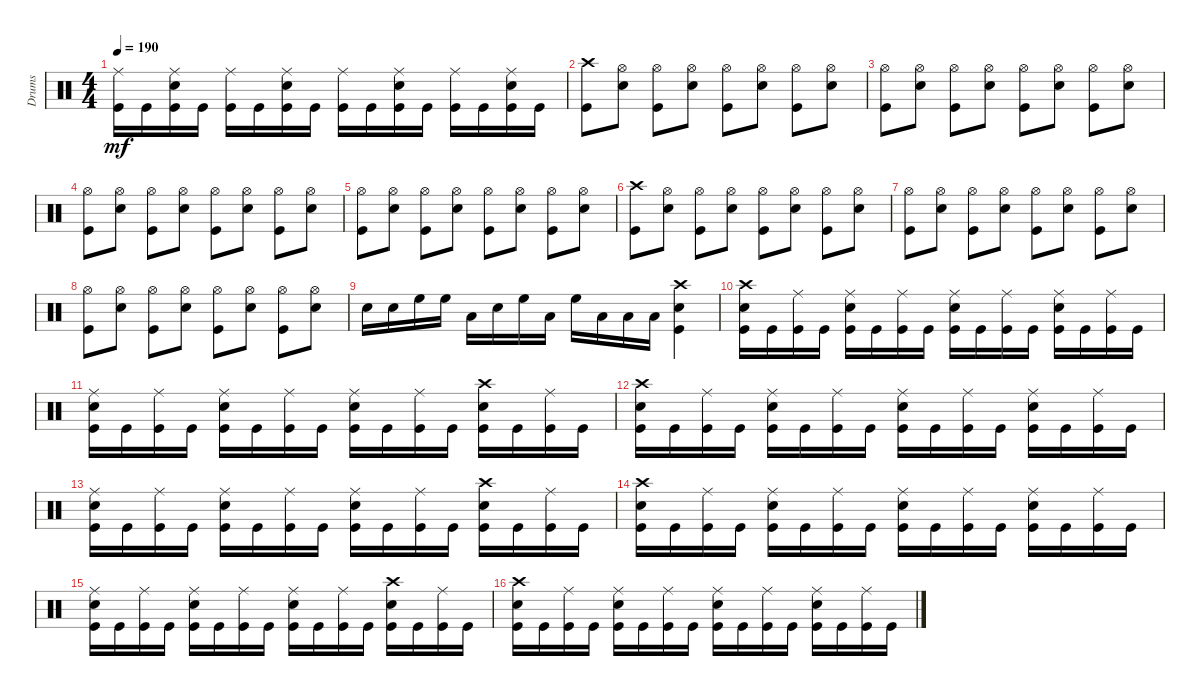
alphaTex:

\track ("Drums" "Drums") {instrument percussion}
\staff {score}
\articulation defaults
\ts (4 4)
\tempo 190
\clef neutral
\ks c
("Kick (hit)" "Ride (middle)").16{dy mf} "Kick (hit)".16 ("Kick (hit)" "Snare (hit) 2" "Ride (middle)").16 "Kick (hit)".16 ("Kick (hit)" "Ride (middle)").16 "Kick (hit)".16 ("Kick (hit)" "Snare (hit) 2" "Ride (middle)").16 "Kick (hit)".16 ("Kick (hit)" "Ride (middle)").16 "Kick (hit)".16 ("Kick (hit)" "Snare (hit) 2" "Ride (middle)").16 "Kick (hit)".16 ("Kick (hit)" "Ride (middle)").16 "Kick (hit)".16 ("Kick (hit)" "Snare (hit) 2" "Ride (middle)").16 "Kick (hit)".16 |
("Kick (hit)" "Crash high (hit)").8 ("Snare (hit) 2" "Hi-Hat (open)").8 ("Kick (hit)" "Hi-Hat (open)").8 ("Snare (hit) 2" "Hi-Hat (open)").8 ("Kick (hit)" "Hi-Hat (open)").8 ("Snare (hit) 2" "Hi-Hat (open)").8 ("Kick (hit)" "Hi-Hat (open)").8 ("Snare (hit) 2" "Hi-Hat (open)").8 |
("Hi-Hat (open)" "Kick (hit)").8 ("Snare (hit) 2" "Hi-Hat (open)").8 ("Hi-Hat (open)" "Kick (hit)").8 ("Snare (hit) 2" "Hi-Hat (open)").8 ("Hi-Hat (open)" "Kick (hit)").8 ("Snare (hit) 2" "Hi-Hat (open)").8 ("Hi-Hat (open)" "Kick (hit)").8 ("Snare (hit) 2" "Hi-Hat (open)").8 |
("Kick (hit)" "Hi-Hat (open)").8 ("Snare (hit) 2" "Hi-Hat (open)").8 ("Kick (hit)" "Hi-Hat (open)").8 ("Snare (hit) 2" "Hi-Hat (open)").8 ("Kick (hit)" "Hi-Hat (open)").8 ("Snare (hit) 2" "Hi-Hat (open)").8 ("Kick (hit)" "Hi-Hat (open)").8 ("Snare (hit) 2" "Hi-Hat (open)").8 |
("Kick (hit)" "Hi-Hat (open)").8 ("Snare (hit) 2" "Hi-Hat (open)").8 ("Kick (hit)" "Hi-Hat (open)").8 ("Snare (hit) 2" "Hi-Hat (open)").8 ("Kick (hit)" "Hi-Hat (open)").8 ("Snare (hit) 2" "Hi-Hat (open)").8 ("Kick (hit)" "Hi-Hat (open)").8 ("Snare (hit) 2" "Hi-Hat (open)").8 |
("Crash high (hit)" "Kick (hit)").8 ("Snare (hit) 2" "Hi-Hat (open)").8 ("Hi-Hat (open)" "Kick (hit)").8 ("Snare (hit) 2" "Hi-Hat (open)").8 ("Hi-Hat (open)" "Kick (hit)").8 ("Snare (hit) 2" "Hi-Hat (open)").8 ("Hi-Hat (open)" "Kick (hit)").8 ("Snare (hit) 2" "Hi-Hat (open)").8 |
("Kick (hit)" "Hi-Hat (open)").8 ("Snare (hit) 2" "Hi-Hat (open)").8 ("Kick (hit)" "Hi-Hat (open)").8 ("Snare (hit) 2" "Hi-Hat (open)").8 ("Kick (hit)" "Hi-Hat (open)").8 ("Snare (hit) 2" "Hi-Hat (open)").8 ("Kick (hit)" "Hi-Hat (open)").8 ("Snare (hit) 2" "Hi-Hat (open)").8 |
("Hi-Hat (open)" "Kick (hit)").8 ("Snare (hit) 2" "Hi-Hat (open)").8 ("Hi-Hat (open)" "Kick (hit)").8 ("Snare (hit) 2" "Hi-Hat (open)").8 ("Hi-Hat (open)" "Kick (hit)").8 ("Snare (hit) 2" "Hi-Hat (open)").8 ("Hi-Hat (open)" "Kick (hit)").8 ("Snare (hit) 2" "Hi-Hat (open)").8 |
"Snare (hit) 2".16 "Snare (hit) 2".16 "High Floor Tom (hit)".16 "High Floor Tom (hit)".16 "Low Tom (hit)".16 "Snare (hit) 2".16 "High Floor Tom (hit)".16 "Low Tom (hit)".16 "High Floor Tom (hit)".16 "Low Tom (hit)".16 "Low Floor Tom (hit)".16 "Low Floor Tom (hit)".16 ("Kick (hit)" "Snare (hit) 2" "Crash high (hit)").4 |
("Kick (hit)" "Snare (hit) 2" "Crash high (hit)").16 "Kick (hit)".16 ("Kick (hit)" "Ride (middle)").16 "Kick (hit)".16 ("Kick (hit)" "Snare (hit) 2" "Ride (middle)").16 "Kick (hit)".16 ("Kick (hit)" "Ride (middle)").16 "Kick (hit)".16 ("Kick (hit)" "Snare (hit) 2" "Ride (middle)").16 "Kick (hit)".16 ("Kick (hit)" "Ride (middle)").16 "Kick (hit)".16 ("Kick (hit)" "Snare (hit) 2" "Ride (middle)").16 "Kick (hit)".16 ("Ride (middle)" "Kick (hit)").16 "Kick (hit)".16 |
("Snare (hit) 2" "Ride (middle)" "Kick (hit)").16 "Kick (hit)".16 ("Ride (middle)" "Kick (hit)").16 "Kick (hit)".16 ("Snare (hit) 2" "Ride (middle)" "Kick (hit)").16 "Kick (hit)".16 ("Ride (middle)" "Kick (hit)").16 "Kick (hit)".16 ("Snare (hit) 2" "Ride (middle)" "Kick (hit)").16 "Kick (hit)".16 ("Ride (middle)" "Kick (hit)").16 "Kick (hit)".16 ("Snare (hit) 2" "Crash high (hit)" "Kick (hit)").16 "Kick (hit)".16 ("Ride (middle)" "Kick (hit)").16 "Kick (hit)".16 |
("Snare (hit) 2" "Crash high (hit)" "Kick (hit)").16 "Kick (hit)".16 ("Ride (middle)" "Kick (hit)").16 "Kick (hit)".16 ("Snare (hit) 2" "Ride (middle)" "Kick (hit)").16 "Kick (hit)".16 ("Ride (middle)" "Kick (hit)").16 "Kick (hit)".16 ("Snare (hit) 2" "Ride (middle)" "Kick (hit)").16 "Kick (hit)".16 ("Ride (middle)" "Kick (hit)").16 "Kick (hit)".16 ("Snare (hit) 2" "Ride (middle)" "Kick (hit)").16 "Kick (hit)".16 ("Ride (middle)" "Kick (hit)").16 "Kick (hit)".16 |
("Snare (hit) 2" "Ride (middle)" "Kick (hit)").16 "Kick (hit)".16 ("Ride (middle)" "Kick (hit)").16 "Kick (hit)".16 ("Snare (hit) 2" "Ride (middle)" "Kick (hit)").16 "Kick (hit)".16 ("Ride (middle)" "Kick (hit)").16 "Kick (hit)".16 ("Snare (hit) 2" "Ride (middle)" "Kick (hit)").16 "Kick (hit)".16 ("Ride (middle)" "Kick (hit)").16 "Kick (hit)".16 ("Snare (hit) 2" "Crash high (hit)" "Kick (hit)").16 "Kick (hit)".16 ("Ride (middle)" "Kick (hit)").16 "Kick (hit)".16 |
("Snare (hit) 2" "Crash high (hit)" "Kick (hit)").16 "Kick (hit)".16 ("Ride (middle)" "Kick (hit)").16 "Kick (hit)".16 ("Snare (hit) 2" "Ride (middle)" "Kick (hit)").16 "Kick (hit)".16 ("Ride (middle)" "Kick (hit)").16 "Kick (hit)".16 ("Snare (hit) 2" "Ride (middle)" "Kick (hit)").16 "Kick (hit)".16 ("Ride (middle)" "Kick (hit)").16 "Kick (hit)".16 ("Snare (hit) 2" "Ride (middle)" "Kick (hit)").16 "Kick (hit)".16 ("Ride (middle)" "Kick (hit)").16 "Kick (hit)".16 |
("Snare (hit) 2" "Ride (middle)" "Kick (hit)").16 "Kick (hit)".16 ("Ride (middle)" "Kick (hit)").16 "Kick (hit)".16 ("Snare (hit) 2" "Ride (middle)" "Kick (hit)").16 "Kick (hit)".16 ("Ride (middle)" "Kick (hit)").16 "Kick (hit)".16 ("Snare (hit) 2" "Ride (middle)" "Kick (hit)").16 "Kick (hit)".16 ("Ride (middle)" "Kick (hit)").16 "Kick (hit)".16 ("Snare (hit) 2" "Crash high (hit)" "Kick (hit)").16 "Kick (hit)".16 ("Ride (middle)" "Kick (hit)").16 "Kick (hit)".16 |
("Snare (hit) 2" "Crash high (hit)" "Kick (hit)").16 "Kick (hit)".16 ("Ride (middle)" "Kick (hit)").16 "Kick (hit)".16 ("Snare (hit) 2" "Ride (middle)" "Kick (hit)").16 "Kick (hit)".16 ("Ride (middle)" "Kick (hit)").16 "Kick (hit)".16 ("Snare (hit) 2" "Ride (middle)" "Kick (hit)").16 "Kick (hit)".16 ("Ride (middle)" "Kick (hit)").16 "Kick (hit)".16 ("Snare (hit) 2" "Ride (middle)" "Kick (hit)").16 "Kick (hit)".16 ("Ride (middle)" "Kick (hit)").16 "Kick (hit)".16
